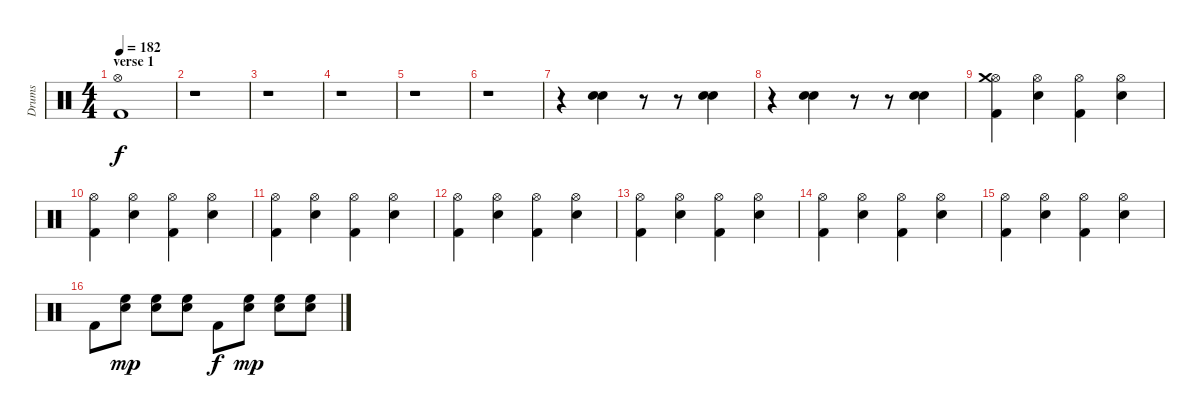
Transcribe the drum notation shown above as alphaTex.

\track ("Drums" "Drums") {instrument percussion}
\staff {score}
\articulation defaults
\ts (4 4)
\section ("" "verse 1")
\tempo 182
\clef neutral
\ks c
("Kick (hit) 2" "Hi-Hat (open)").1{dy f} |
r.1 |
r.1 |
r.1 |
r.1 |
r.1 |
r.4 ("Snare (hit) 2" "Snare (hit) 2").4 r.8 r.8 ("Snare (hit) 2" "Snare (hit) 2").4 |
r.4 ("Snare (hit) 2" "Snare (hit) 2").4 r.8 r.8 ("Snare (hit) 2" "Snare (hit) 2").4 |
("Hi-Hat (open)" "Kick (hit) 2" "Crash medium (hit)").4 ("Hi-Hat (open)" "Snare (hit) 2").4 ("Kick (hit) 2" "Hi-Hat (open)").4 ("Hi-Hat (open)" "Snare (hit) 2").4 |
("Hi-Hat (open)" "Kick (hit) 2").4 ("Hi-Hat (open)" "Snare (hit) 2").4 ("Kick (hit) 2" "Hi-Hat (open)").4 ("Hi-Hat (open)" "Snare (hit) 2").4 |
("Hi-Hat (open)" "Kick (hit) 2").4 ("Hi-Hat (open)" "Snare (hit) 2").4 ("Kick (hit) 2" "Hi-Hat (open)").4 ("Hi-Hat (open)" "Snare (hit) 2").4 |
("Hi-Hat (open)" "Kick (hit) 2").4 ("Hi-Hat (open)" "Snare (hit) 2").4 ("Kick (hit) 2" "Hi-Hat (open)").4 ("Hi-Hat (open)" "Snare (hit) 2").4 |
("Hi-Hat (open)" "Kick (hit) 2").4 ("Hi-Hat (open)" "Snare (hit) 2").4 ("Kick (hit) 2" "Hi-Hat (open)").4 ("Hi-Hat (open)" "Snare (hit) 2").4 |
("Hi-Hat (open)" "Kick (hit) 2").4 ("Hi-Hat (open)" "Snare (hit) 2").4 ("Kick (hit) 2" "Hi-Hat (open)").4 ("Hi-Hat (open)" "Snare (hit) 2").4 |
("Hi-Hat (open)" "Kick (hit) 2").4 ("Hi-Hat (open)" "Snare (hit) 2").4 ("Kick (hit) 2" "Hi-Hat (open)").4 ("Hi-Hat (open)" "Snare (hit) 2").4 |
"Kick (hit) 2".8 ("Snare (hit) 2" "High Floor Tom (hit)").8{dy mp} ("Snare (hit) 2" "High Floor Tom (hit)").8 ("Snare (hit) 2" "High Floor Tom (hit)").8 "Kick (hit) 2".8{dy f} ("Snare (hit) 2" "High Floor Tom (hit)").8{dy mp} ("Snare (hit) 2" "High Floor Tom (hit)").8 ("Snare (hit) 2" "High Floor Tom (hit)").8
